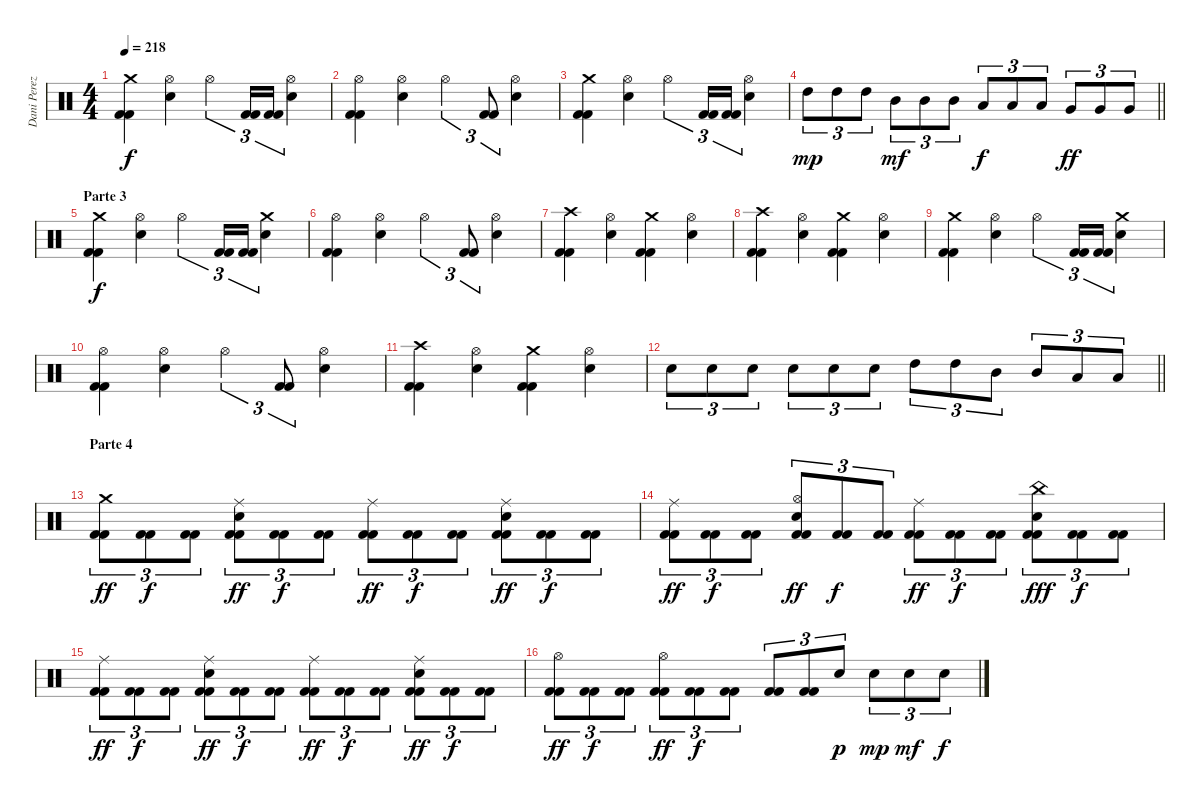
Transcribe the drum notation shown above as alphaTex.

\track ("Dani Perez" "Dani Perez") {instrument percussion}
\staff {score}
\articulation defaults
\ts (4 4)
\tempo 218
\clef neutral
\ks c
("Crash medium (hit)" "Kick (hit) 2" "Kick (hit) 2").4{dy f} ("Hi-Hat (open)" "Snare (hit) 2").4 "Hi-Hat (open)".4{tu (3 2)} ("Kick (hit) 2" "Kick (hit) 2").16{tu (3 2)} ("Kick (hit) 2" "Kick (hit) 2").16{tu (3 2)} ("Hi-Hat (open)" "Snare (hit) 2").4 |
("Hi-Hat (open)" "Kick (hit) 2" "Kick (hit) 2").4 ("Hi-Hat (open)" "Snare (hit) 2").4 "Hi-Hat (open)".4{tu (3 2)} ("Kick (hit) 2" "Kick (hit) 2").8{tu (3 2)} ("Hi-Hat (open)" "Snare (hit) 2").4 |
("Crash medium (hit)" "Kick (hit) 2" "Kick (hit) 2").4 ("Hi-Hat (open)" "Snare (hit) 2").4 "Hi-Hat (open)".4{tu (3 2)} ("Kick (hit) 2" "Kick (hit) 2").16{tu (3 2)} ("Kick (hit) 2" "Kick (hit) 2").16{tu (3 2)} ("Hi-Hat (open)" "Snare (hit) 2").4 |
\barLineRight lightlight "High Tom (hit)".8{tu (3 2) dy mp} "High Tom (hit)".8{tu (3 2)} "High Tom (hit)".8{tu (3 2)} "Mid Tom (hit)".8{tu (3 2) dy mf} "Mid Tom (hit)".8{tu (3 2)} "Mid Tom (hit)".8{tu (3 2)} "Low Tom (hit)".8{tu (3 2) dy f} "Low Tom (hit)".8{tu (3 2)} "Low Tom (hit)".8{tu (3 2)} "Very Low Tom (hit)".8{tu (3 2) dy ff} "Very Low Tom (hit)".8{tu (3 2)} "Very Low Tom (hit)".8{tu (3 2)}
|
\section ("" "Parte 3")
("Crash medium (hit)" "Kick (hit) 2" "Kick (hit) 2").4{dy f} ("Hi-Hat (open)" "Snare (hit) 2").4 "Hi-Hat (open)".4{tu (3 2)} ("Kick (hit) 2" "Kick (hit) 2").16{tu (3 2)} ("Kick (hit) 2" "Kick (hit) 2").16{tu (3 2)} ("Crash medium (hit)" "Snare (hit) 2").4 |
("Hi-Hat (open)" "Kick (hit) 2" "Kick (hit) 2").4 ("Hi-Hat (open)" "Snare (hit) 2").4 "Hi-Hat (open)".4{tu (3 2)} ("Kick (hit) 2" "Kick (hit) 2").8{tu (3 2)} ("Hi-Hat (open)" "Snare (hit) 2").4 |
("Crash high (hit)" "Kick (hit) 2" "Kick (hit) 2").4 ("Hi-Hat (open)" "Snare (hit) 2").4 ("Crash medium (hit)" "Kick (hit) 2" "Kick (hit) 2").4 ("Hi-Hat (open)" "Snare (hit) 2").4 |
("Crash high (hit)" "Kick (hit) 2" "Kick (hit) 2").4 ("Hi-Hat (open)" "Snare (hit) 2").4 ("Crash medium (hit)" "Kick (hit) 2" "Kick (hit) 2").4 ("Hi-Hat (open)" "Snare (hit) 2").4 |
("Crash medium (hit)" "Kick (hit) 2" "Kick (hit) 2").4 ("Hi-Hat (open)" "Snare (hit) 2").4 "Hi-Hat (open)".4{tu (3 2)} ("Kick (hit) 2" "Kick (hit) 2").16{tu (3 2)} ("Kick (hit) 2" "Kick (hit) 2").16{tu (3 2)} ("Crash medium (hit)" "Snare (hit) 2").4 |
("Hi-Hat (open)" "Kick (hit) 2" "Kick (hit) 2").4 ("Hi-Hat (open)" "Snare (hit) 2").4 "Hi-Hat (open)".4{tu (3 2)} ("Kick (hit) 2" "Kick (hit) 2").8{tu (3 2)} ("Hi-Hat (open)" "Snare (hit) 2").4 |
("Crash high (hit)" "Kick (hit) 2" "Kick (hit) 2").4 ("Hi-Hat (open)" "Snare (hit) 2").4 ("Crash medium (hit)" "Kick (hit) 2" "Kick (hit) 2").4 ("Hi-Hat (open)" "Snare (hit) 2").4 |
\barLineRight lightlight "Snare (hit) 2".8{tu (3 2)} "Snare (hit) 2".8{tu (3 2)} "Snare (hit) 2".8{tu (3 2)} "Snare (hit) 2".8{tu (3 2)} "Snare (hit) 2".8{tu (3 2)} "Snare (hit) 2".8{tu (3 2)} "High Tom (hit)".8{tu (3 2)} "High Tom (hit)".8{tu (3 2)} "Mid Tom (hit)".8{tu (3 2)} "Mid Tom (hit)".8{tu (3 2)} "Low Tom (hit)".8{tu (3 2)} "Low Tom (hit)".8{tu (3 2)}
|
\section ("" "Parte 4")
("Crash medium (hit)" "Kick (hit) 2" "Kick (hit) 2").8{tu (3 2) dy ff} ("Kick (hit) 2" "Kick (hit) 2").8{tu (3 2) dy f} ("Kick (hit) 2" "Kick (hit) 2").8{tu (3 2)} ("Ride (middle)" "Snare (hit) 2" "Kick (hit) 2" "Kick (hit) 2").8{tu (3 2) dy ff} ("Kick (hit) 2" "Kick (hit) 2").8{tu (3 2) dy f} ("Kick (hit) 2" "Kick (hit) 2").8{tu (3 2)} ("Ride (middle)" "Kick (hit) 2" "Kick (hit) 2").8{tu (3 2) dy ff} ("Kick (hit) 2" "Kick (hit) 2").8{tu (3 2) dy f} ("Kick (hit) 2" "Kick (hit) 2").8{tu (3 2)} ("Ride (middle)" "Snare (hit) 2" "Kick (hit) 2" "Kick (hit) 2").8{tu (3 2) dy ff} ("Kick (hit) 2" "Kick (hit) 2").8{tu (3 2) dy f} ("Kick (hit) 2" "Kick (hit) 2").8{tu (3 2)} |
("Ride (middle)" "Kick (hit) 2" "Kick (hit) 2").8{tu (3 2) dy ff} ("Kick (hit) 2" "Kick (hit) 2").8{tu (3 2) dy f} ("Kick (hit) 2" "Kick (hit) 2").8{tu (3 2)} ("Hi-Hat (open)" "Snare (hit) 2" "Kick (hit) 2" "Kick (hit) 2").8{tu (3 2) dy ff} ("Kick (hit) 2" "Kick (hit) 2").8{tu (3 2) dy f} ("Kick (hit) 2" "Kick (hit) 2").8{tu (3 2)} ("Ride (middle)" "Kick (hit) 2" "Kick (hit) 2").8{tu (3 2) dy ff} ("Kick (hit) 2" "Kick (hit) 2").8{tu (3 2) dy f} ("Kick (hit) 2" "Kick (hit) 2").8{tu (3 2)} ("China (hit)" "Snare (hit) 2" "Kick (hit) 2" "Kick (hit) 2").8{tu (3 2) dy fff} ("Kick (hit) 2" "Kick (hit) 2").8{tu (3 2) dy f} ("Kick (hit) 2" "Kick (hit) 2").8{tu (3 2)} |
("Ride (middle)" "Kick (hit) 2" "Kick (hit) 2").8{tu (3 2) dy ff} ("Kick (hit) 2" "Kick (hit) 2").8{tu (3 2) dy f} ("Kick (hit) 2" "Kick (hit) 2").8{tu (3 2)} ("Ride (middle)" "Snare (hit) 2" "Kick (hit) 2" "Kick (hit) 2").8{tu (3 2) dy ff} ("Kick (hit) 2" "Kick (hit) 2").8{tu (3 2) dy f} ("Kick (hit) 2" "Kick (hit) 2").8{tu (3 2)} ("Ride (middle)" "Kick (hit) 2" "Kick (hit) 2").8{tu (3 2) dy ff} ("Kick (hit) 2" "Kick (hit) 2").8{tu (3 2) dy f} ("Kick (hit) 2" "Kick (hit) 2").8{tu (3 2)} ("Ride (middle)" "Snare (hit) 2" "Kick (hit) 2" "Kick (hit) 2").8{tu (3 2) dy ff} ("Kick (hit) 2" "Kick (hit) 2").8{tu (3 2) dy f} ("Kick (hit) 2" "Kick (hit) 2").8{tu (3 2)} |
("Hi-Hat (open)" "Kick (hit) 2" "Kick (hit) 2").8{tu (3 2) dy ff} ("Kick (hit) 2" "Kick (hit) 2").8{tu (3 2) dy f} ("Kick (hit) 2" "Kick (hit) 2").8{tu (3 2)} ("Hi-Hat (open)" "Kick (hit) 2" "Kick (hit) 2").8{tu (3 2) dy ff} ("Kick (hit) 2" "Kick (hit) 2").8{tu (3 2) dy f} ("Kick (hit) 2" "Kick (hit) 2").8{tu (3 2)} ("Kick (hit) 2" "Kick (hit) 2").8{tu (3 2)} ("Kick (hit) 2" "Kick (hit) 2").8{tu (3 2)} "Snare (hit) 2".8{tu (3 2) dy p} "Snare (hit) 2".8{tu (3 2) dy mp} "Snare (hit) 2".8{tu (3 2) dy mf} "Snare (hit) 2".8{tu (3 2) dy f}
